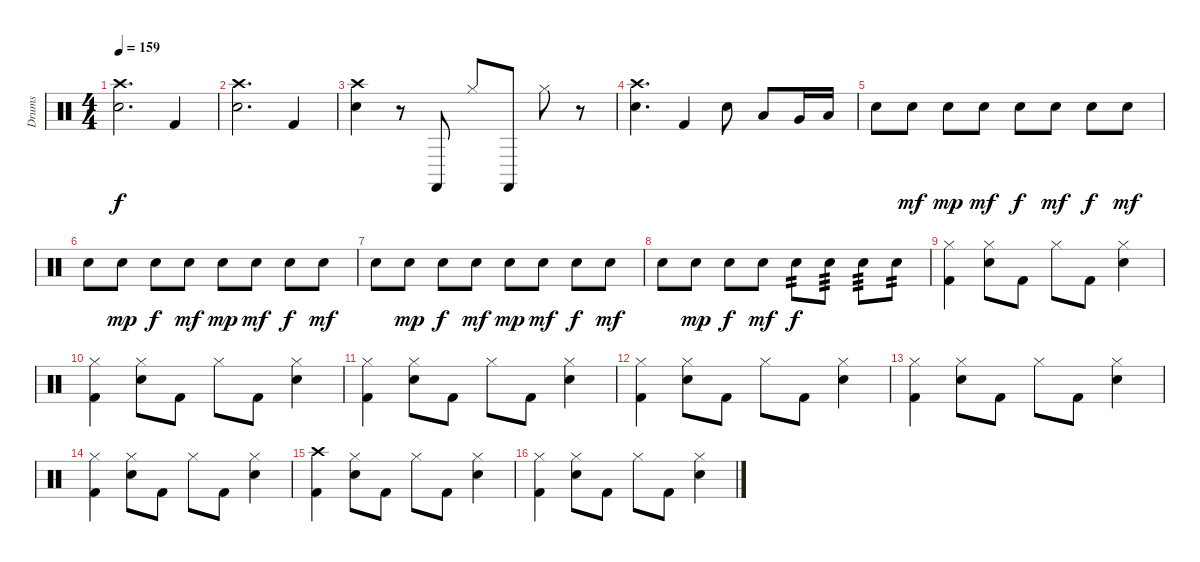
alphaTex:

\track ("Drums" "Drums") {instrument percussion}
\staff {score}
\articulation defaults
\ts (4 4)
\tempo 159
\clef neutral
\ks c
("Snare (hit) 2" "Crash high (hit)").2{d dy f} "Kick (hit) 2".4 |
("Snare (hit) 2" "Crash high (hit)").2{d} "Kick (hit) 2".4 |
("Crash high (hit)" "Snare (hit) 2").4 r.8 "Castanets (hit)".8 "Hi-Hat (closed)".8 "Castanets (hit)".8 "Hi-Hat (closed)".8 r.8 |
("Crash high (hit)" "Snare (hit) 2").4{d} "Kick (hit) 2".4 "Electric Snare (hit)".8 "Low Tom (hit)".8 "Very Low Tom (hit)".16 "Low Floor Tom (hit)".16 |
"Electric Snare (hit)".8 "Electric Snare (hit)".8{dy mf} "Electric Snare (hit)".8{dy mp} "Electric Snare (hit)".8{dy mf} "Electric Snare (hit)".8{dy f} "Electric Snare (hit)".8{dy mf} "Electric Snare (hit)".8{dy f} "Electric Snare (hit)".8{dy mf} |
"Electric Snare (hit)".8 "Electric Snare (hit)".8{dy mp} "Electric Snare (hit)".8{dy f} "Electric Snare (hit)".8{dy mf} "Electric Snare (hit)".8{dy mp} "Electric Snare (hit)".8{dy mf} "Electric Snare (hit)".8{dy f} "Electric Snare (hit)".8{dy mf} |
"Electric Snare (hit)".8 "Electric Snare (hit)".8{dy mp} "Electric Snare (hit)".8{dy f} "Electric Snare (hit)".8{dy mf} "Electric Snare (hit)".8{dy mp} "Electric Snare (hit)".8{dy mf} "Electric Snare (hit)".8{dy f} "Electric Snare (hit)".8{dy mf} |
"Electric Snare (hit)".8 "Electric Snare (hit)".8{dy mp} "Electric Snare (hit)".8{dy f} "Electric Snare (hit)".8{dy mf} "Electric Snare (hit)".8{tp 2 dy f} "Electric Snare (hit)".8{tp 3} "Electric Snare (hit)".8{tp 3} "Electric Snare (hit)".8{tp 2} |
("Hi-Hat (closed)" "Kick (hit) 2").4 ("Hi-Hat (closed)" "Electric Snare (hit)").8 "Kick (hit) 2".8 "Hi-Hat (closed)".8 "Kick (hit) 2".8 ("Hi-Hat (closed)" "Electric Snare (hit)").4 |
("Hi-Hat (closed)" "Kick (hit) 2").4 ("Hi-Hat (closed)" "Electric Snare (hit)").8 "Kick (hit) 2".8 "Hi-Hat (closed)".8 "Kick (hit) 2".8 ("Hi-Hat (closed)" "Electric Snare (hit)").4 |
("Hi-Hat (closed)" "Kick (hit) 2").4 ("Hi-Hat (closed)" "Electric Snare (hit)").8 "Kick (hit) 2".8 "Hi-Hat (closed)".8 "Kick (hit) 2".8 ("Hi-Hat (closed)" "Electric Snare (hit)").4 |
("Hi-Hat (closed)" "Kick (hit) 2").4 ("Hi-Hat (closed)" "Electric Snare (hit)").8 "Kick (hit) 2".8 "Hi-Hat (closed)".8 "Kick (hit) 2".8 ("Hi-Hat (closed)" "Electric Snare (hit)").4 |
("Hi-Hat (closed)" "Kick (hit) 2").4 ("Hi-Hat (closed)" "Electric Snare (hit)").8 "Kick (hit) 2".8 "Hi-Hat (closed)".8 "Kick (hit) 2".8 ("Hi-Hat (closed)" "Electric Snare (hit)").4 |
("Hi-Hat (closed)" "Kick (hit) 2").4 ("Hi-Hat (closed)" "Electric Snare (hit)").8 "Kick (hit) 2".8 "Hi-Hat (closed)".8 "Kick (hit) 2".8 ("Hi-Hat (closed)" "Electric Snare (hit)").4 |
("Crash high (hit)" "Kick (hit) 2").4 ("Hi-Hat (closed)" "Electric Snare (hit)").8 "Kick (hit) 2".8 "Hi-Hat (closed)".8 "Kick (hit) 2".8 ("Hi-Hat (closed)" "Electric Snare (hit)").4 |
("Hi-Hat (closed)" "Kick (hit) 2").4 ("Hi-Hat (closed)" "Electric Snare (hit)").8 "Kick (hit) 2".8 "Hi-Hat (closed)".8 "Kick (hit) 2".8 ("Hi-Hat (closed)" "Electric Snare (hit)").4
